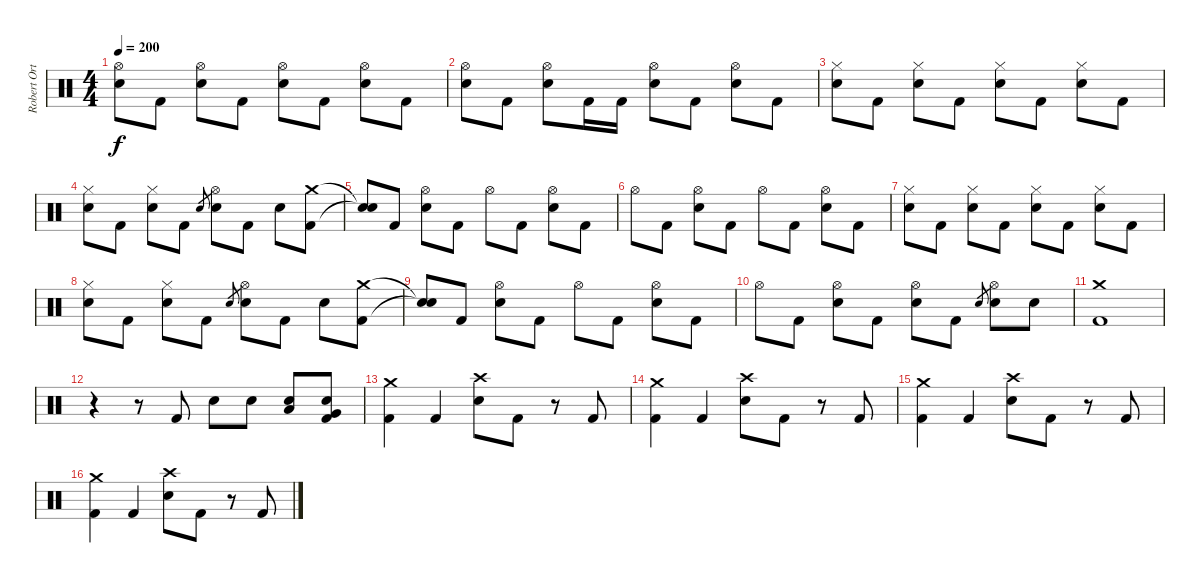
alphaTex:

\track ("Robert Ortiz - Drums" "Robert Ort") {instrument percussion}
\staff {score}
\articulation defaults
\ts (4 4)
\tempo 200
\clef neutral
\ks c
("Hi-Hat (open)" "Electric Snare (hit)").8{dy f} "Kick (hit) 2".8 ("Hi-Hat (open)" "Electric Snare (hit)").8 "Kick (hit) 2".8 ("Hi-Hat (open)" "Electric Snare (hit)").8 "Kick (hit) 2".8 ("Hi-Hat (open)" "Electric Snare (hit)").8 "Kick (hit) 2".8 |
("Hi-Hat (open)" "Electric Snare (hit)").8 "Kick (hit) 2".8 ("Hi-Hat (open)" "Electric Snare (hit)").8 "Kick (hit) 2".16 "Kick (hit) 2".16 ("Hi-Hat (open)" "Electric Snare (hit)").8 "Kick (hit) 2".8 ("Hi-Hat (open)" "Electric Snare (hit)").8 "Kick (hit) 2".8 |
("Hi-Hat (closed)" "Electric Snare (hit)").8 "Kick (hit) 2".8 ("Hi-Hat (closed)" "Electric Snare (hit)").8 "Kick (hit) 2".8 ("Hi-Hat (closed)" "Electric Snare (hit)").8 "Kick (hit) 2".8 ("Hi-Hat (closed)" "Electric Snare (hit)").8 "Kick (hit) 2".8 |
("Hi-Hat (closed)" "Electric Snare (hit)").8 "Kick (hit) 2".8 ("Hi-Hat (closed)" "Electric Snare (hit)").8 "Kick (hit) 2".8 "Electric Snare (hit)".8{gr} ("Hi-Hat (open)" "Electric Snare (hit)").8 "Kick (hit) 2".8 "Electric Snare (hit)".8 ("Crash medium (hit)" "Kick (hit) 2").8 |
("Snare (hit)"{t} "Snare (hit)"{t}).8 "Kick (hit) 2".8 ("Hi-Hat (open)" "Electric Snare (hit)").8 "Kick (hit) 2".8 "Hi-Hat (open)".8 "Kick (hit) 2".8 ("Hi-Hat (open)" "Electric Snare (hit)").8 "Kick (hit) 2".8 |
"Hi-Hat (open)".8 "Kick (hit) 2".8 ("Hi-Hat (open)" "Electric Snare (hit)").8 "Kick (hit) 2".8 "Hi-Hat (open)".8 "Kick (hit) 2".8 ("Hi-Hat (open)" "Electric Snare (hit)").8 "Kick (hit) 2".8 |
("Hi-Hat (closed)" "Electric Snare (hit)").8 "Kick (hit) 2".8 ("Hi-Hat (closed)" "Electric Snare (hit)").8 "Kick (hit) 2".8 ("Hi-Hat (closed)" "Electric Snare (hit)").8 "Kick (hit) 2".8 ("Hi-Hat (closed)" "Electric Snare (hit)").8 "Kick (hit) 2".8 |
("Hi-Hat (closed)" "Electric Snare (hit)").8 "Kick (hit) 2".8 ("Hi-Hat (closed)" "Electric Snare (hit)").8 "Kick (hit) 2".8 "Electric Snare (hit)".8{gr} ("Hi-Hat (open)" "Electric Snare (hit)").8 "Kick (hit) 2".8 "Electric Snare (hit)".8 ("Crash medium (hit)" "Kick (hit) 2").8 |
("Snare (hit)"{t} "Snare (hit)"{t}).8 "Kick (hit) 2".8 ("Hi-Hat (open)" "Electric Snare (hit)").8 "Kick (hit) 2".8 "Hi-Hat (open)".8 "Kick (hit) 2".8 ("Hi-Hat (open)" "Electric Snare (hit)").8 "Kick (hit) 2".8 |
"Hi-Hat (open)".8 "Kick (hit) 2".8 ("Hi-Hat (open)" "Electric Snare (hit)").8 "Kick (hit) 2".8 ("Hi-Hat (open)" "Electric Snare (hit)").8 "Kick (hit) 2".8 "Electric Snare (hit)".8{gr} ("Hi-Hat (open)" "Electric Snare (hit)").8 "Electric Snare (hit)".8 |
("Crash medium (hit)" "Kick (hit) 2").1 |
r.4 r.8 "Kick (hit) 2".8 "Electric Snare (hit)".8 "Electric Snare (hit)".8 ("Low Floor Tom (hit)" "Electric Snare (hit)").8 ("Very Low Tom (hit)" "Electric Snare (hit)" "Kick (hit) 2").8 |
("Crash medium (hit)" "Kick (hit) 2").4 "Kick (hit) 2".4 ("Crash high (hit)" "Electric Snare (hit)").8 "Kick (hit) 2".8 r.8 "Kick (hit) 2".8 |
("Crash medium (hit)" "Kick (hit) 2").4 "Kick (hit) 2".4 ("Crash high (hit)" "Electric Snare (hit)").8 "Kick (hit) 2".8 r.8 "Kick (hit) 2".8 |
("Crash medium (hit)" "Kick (hit) 2").4 "Kick (hit) 2".4 ("Crash high (hit)" "Electric Snare (hit)").8 "Kick (hit) 2".8 r.8 "Kick (hit) 2".8 |
("Crash medium (hit)" "Kick (hit) 2").4 "Kick (hit) 2".4 ("Crash high (hit)" "Electric Snare (hit)").8 "Kick (hit) 2".8 r.8 "Kick (hit) 2".8
